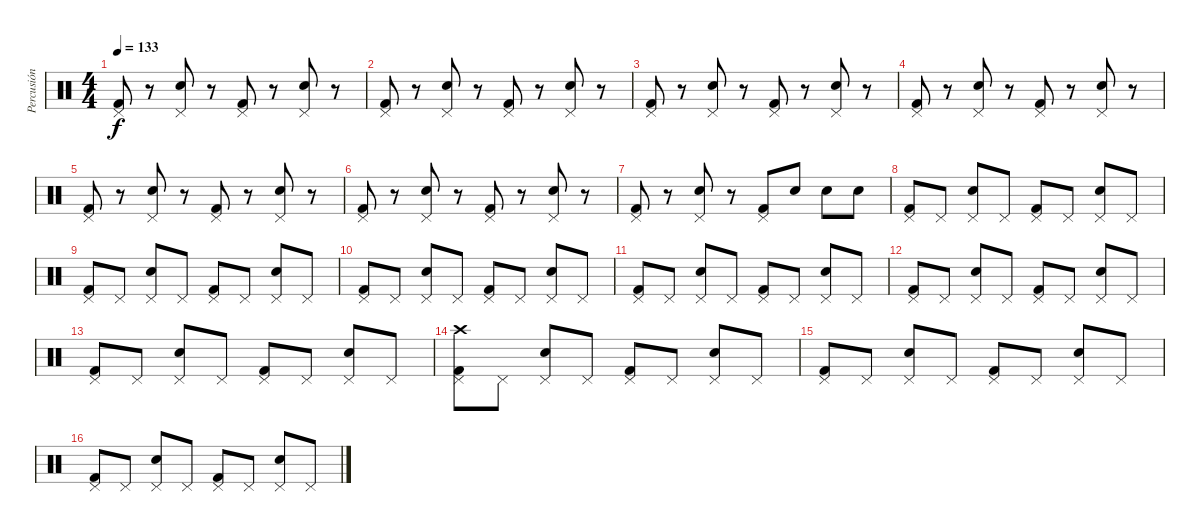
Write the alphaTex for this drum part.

\track ("Percusión" "Percusión") {instrument percussion}
\staff {score}
\articulation defaults
\ts (4 4)
\tempo 133
\clef neutral
\ks c
("Pedal Hi-Hat (hit)" "Kick (hit) 2").8{dy f} r.8 ("Electric Snare (hit)" "Pedal Hi-Hat (hit)").8 r.8 ("Pedal Hi-Hat (hit)" "Kick (hit) 2").8 r.8 ("Electric Snare (hit)" "Pedal Hi-Hat (hit)").8 r.8 |
("Pedal Hi-Hat (hit)" "Kick (hit) 2").8 r.8 ("Electric Snare (hit)" "Pedal Hi-Hat (hit)").8 r.8 ("Pedal Hi-Hat (hit)" "Kick (hit) 2").8 r.8 ("Electric Snare (hit)" "Pedal Hi-Hat (hit)").8 r.8 |
("Pedal Hi-Hat (hit)" "Kick (hit) 2").8 r.8 ("Electric Snare (hit)" "Pedal Hi-Hat (hit)").8 r.8 ("Pedal Hi-Hat (hit)" "Kick (hit) 2").8 r.8 ("Electric Snare (hit)" "Pedal Hi-Hat (hit)").8 r.8 |
("Pedal Hi-Hat (hit)" "Kick (hit) 2").8 r.8 ("Electric Snare (hit)" "Pedal Hi-Hat (hit)").8 r.8 ("Pedal Hi-Hat (hit)" "Kick (hit) 2").8 r.8 ("Electric Snare (hit)" "Pedal Hi-Hat (hit)").8 r.8 |
("Pedal Hi-Hat (hit)" "Kick (hit) 2").8 r.8 ("Electric Snare (hit)" "Pedal Hi-Hat (hit)").8 r.8 ("Pedal Hi-Hat (hit)" "Kick (hit) 2").8 r.8 ("Electric Snare (hit)" "Pedal Hi-Hat (hit)").8 r.8 |
("Pedal Hi-Hat (hit)" "Kick (hit) 2").8 r.8 ("Electric Snare (hit)" "Pedal Hi-Hat (hit)").8 r.8 ("Pedal Hi-Hat (hit)" "Kick (hit) 2").8 r.8 ("Electric Snare (hit)" "Pedal Hi-Hat (hit)").8 r.8 |
("Pedal Hi-Hat (hit)" "Kick (hit) 2").8 r.8 ("Electric Snare (hit)" "Pedal Hi-Hat (hit)").8 r.8 ("Pedal Hi-Hat (hit)" "Kick (hit) 2").8 "Electric Snare (hit)".8 "Electric Snare (hit)".8 "Electric Snare (hit)".8 |
("Pedal Hi-Hat (hit)" "Kick (hit) 2").8 "Pedal Hi-Hat (hit)".8 ("Electric Snare (hit)" "Pedal Hi-Hat (hit)").8 "Pedal Hi-Hat (hit)".8 ("Pedal Hi-Hat (hit)" "Kick (hit) 2").8 "Pedal Hi-Hat (hit)".8 ("Electric Snare (hit)" "Pedal Hi-Hat (hit)").8 "Pedal Hi-Hat (hit)".8 |
("Pedal Hi-Hat (hit)" "Kick (hit) 2").8 "Pedal Hi-Hat (hit)".8 ("Electric Snare (hit)" "Pedal Hi-Hat (hit)").8 "Pedal Hi-Hat (hit)".8 ("Pedal Hi-Hat (hit)" "Kick (hit) 2").8 "Pedal Hi-Hat (hit)".8 ("Electric Snare (hit)" "Pedal Hi-Hat (hit)").8 "Pedal Hi-Hat (hit)".8 |
("Pedal Hi-Hat (hit)" "Kick (hit) 2").8 "Pedal Hi-Hat (hit)".8 ("Electric Snare (hit)" "Pedal Hi-Hat (hit)").8 "Pedal Hi-Hat (hit)".8 ("Pedal Hi-Hat (hit)" "Kick (hit) 2").8 "Pedal Hi-Hat (hit)".8 ("Electric Snare (hit)" "Pedal Hi-Hat (hit)").8 "Pedal Hi-Hat (hit)".8 |
("Pedal Hi-Hat (hit)" "Kick (hit) 2").8 "Pedal Hi-Hat (hit)".8 ("Electric Snare (hit)" "Pedal Hi-Hat (hit)").8 "Pedal Hi-Hat (hit)".8 ("Pedal Hi-Hat (hit)" "Kick (hit) 2").8 "Pedal Hi-Hat (hit)".8 ("Electric Snare (hit)" "Pedal Hi-Hat (hit)").8 "Pedal Hi-Hat (hit)".8 |
("Pedal Hi-Hat (hit)" "Kick (hit) 2").8 "Pedal Hi-Hat (hit)".8 ("Electric Snare (hit)" "Pedal Hi-Hat (hit)").8 "Pedal Hi-Hat (hit)".8 ("Pedal Hi-Hat (hit)" "Kick (hit) 2").8 "Pedal Hi-Hat (hit)".8 ("Electric Snare (hit)" "Pedal Hi-Hat (hit)").8 "Pedal Hi-Hat (hit)".8 |
("Pedal Hi-Hat (hit)" "Kick (hit) 2").8 "Pedal Hi-Hat (hit)".8 ("Electric Snare (hit)" "Pedal Hi-Hat (hit)").8 "Pedal Hi-Hat (hit)".8 ("Pedal Hi-Hat (hit)" "Kick (hit) 2").8 "Pedal Hi-Hat (hit)".8 ("Electric Snare (hit)" "Pedal Hi-Hat (hit)").8 "Pedal Hi-Hat (hit)".8 |
("Crash high (hit)" "Pedal Hi-Hat (hit)" "Kick (hit) 2").8 "Pedal Hi-Hat (hit)".8 ("Electric Snare (hit)" "Pedal Hi-Hat (hit)").8 "Pedal Hi-Hat (hit)".8 ("Pedal Hi-Hat (hit)" "Kick (hit) 2").8 "Pedal Hi-Hat (hit)".8 ("Electric Snare (hit)" "Pedal Hi-Hat (hit)").8 "Pedal Hi-Hat (hit)".8 |
("Pedal Hi-Hat (hit)" "Kick (hit) 2").8 "Pedal Hi-Hat (hit)".8 ("Electric Snare (hit)" "Pedal Hi-Hat (hit)").8 "Pedal Hi-Hat (hit)".8 ("Pedal Hi-Hat (hit)" "Kick (hit) 2").8 "Pedal Hi-Hat (hit)".8 ("Electric Snare (hit)" "Pedal Hi-Hat (hit)").8 "Pedal Hi-Hat (hit)".8 |
("Pedal Hi-Hat (hit)" "Kick (hit) 2").8 "Pedal Hi-Hat (hit)".8 ("Electric Snare (hit)" "Pedal Hi-Hat (hit)").8 "Pedal Hi-Hat (hit)".8 ("Pedal Hi-Hat (hit)" "Kick (hit) 2").8 "Pedal Hi-Hat (hit)".8 ("Electric Snare (hit)" "Pedal Hi-Hat (hit)").8 "Pedal Hi-Hat (hit)".8
